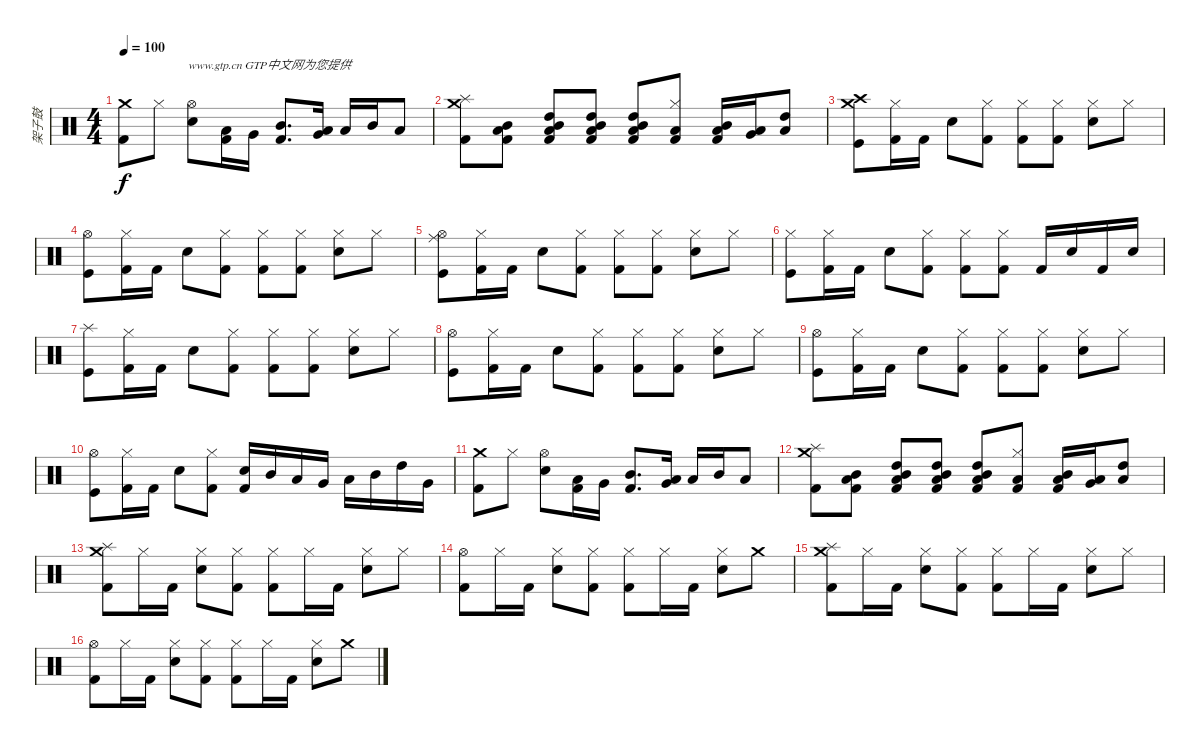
\track ("架子鼓" "架子鼓") {instrument percussion}
\staff {score}
\articulation defaults
\ts (4 4)
\tempo 100
\clef neutral
\ks c
("Crash medium (hit)" "Kick (hit) 2").8{txt "                     www.gtp.cn GTP中文网为您提供" dy f} "Hi-Hat (closed)".8 ("Hi-Hat (open)" "Electric Snare (hit)").8 ("Low Tom (hit)" "Kick (hit) 2").16 "Very Low Tom (hit)".16 ("Mid Tom (hit)" "Kick (hit) 2").8{d} ("Very Low Tom (hit)" "Low Tom (hit)").16 "Low Tom (hit)".16 "Mid Tom (hit)".16 "Low Floor Tom (hit)".8 |
("Splash (hit)" "Crash medium (hit)" "Kick (hit) 2").8 ("Mid Tom (hit)" "Low Tom (hit)" "Kick (hit) 2").8 ("Mid Tom (hit)" "High Tom (hit)" "Low Tom (hit)" "Kick (hit) 2").8 ("Mid Tom (hit)" "High Tom (hit)" "Low Tom (hit)" "Kick (hit) 2").8 ("Mid Tom (hit)" "High Tom (hit)" "Low Tom (hit)" "Kick (hit) 2").8 ("Hi-Hat (closed)" "Low Tom (hit)" "Kick (hit) 2").8 ("Mid Tom (hit)" "Low Tom (hit)" "Kick (hit) 2").16 ("Low Tom (hit)" "Very Low Tom (hit)").16 ("High Tom (hit)" "Low Floor Tom (hit)").8 |
("Crash medium (hit)" "Crash high (hit)" "Kick (hit)").8 ("Hi-Hat (closed)" "Kick (hit) 2").16 "Kick (hit) 2".16 "Electric Snare (hit)".8 ("Hi-Hat (closed)" "Kick (hit) 2").8 ("Hi-Hat (closed)" "Kick (hit) 2").8 ("Hi-Hat (closed)" "Kick (hit) 2").8 ("Hi-Hat (closed)" "Electric Snare (hit)").8 "Hi-Hat (closed)".8 |
("Hi-Hat (open)" "Kick (hit)").8 ("Hi-Hat (closed)" "Kick (hit) 2").16 "Kick (hit) 2".16 "Electric Snare (hit)".8 ("Hi-Hat (closed)" "Kick (hit) 2").8 ("Hi-Hat (closed)" "Kick (hit) 2").8 ("Hi-Hat (closed)" "Kick (hit) 2").8 ("Hi-Hat (closed)" "Electric Snare (hit)").8 "Hi-Hat (closed)".8 |
("Ride (middle)" "Hi-Hat (open)" "Kick (hit)").8 ("Hi-Hat (closed)" "Kick (hit) 2").16 "Kick (hit) 2".16 "Electric Snare (hit)".8 ("Hi-Hat (closed)" "Kick (hit) 2").8 ("Hi-Hat (closed)" "Kick (hit) 2").8 ("Hi-Hat (closed)" "Kick (hit) 2").8 ("Hi-Hat (closed)" "Electric Snare (hit)").8 "Hi-Hat (closed)".8 |
("Hi-Hat (closed)" "Kick (hit)").8 ("Hi-Hat (closed)" "Kick (hit) 2").16 "Kick (hit) 2".16 "Electric Snare (hit)".8 ("Hi-Hat (closed)" "Kick (hit) 2").8 ("Hi-Hat (closed)" "Kick (hit) 2").8 ("Hi-Hat (closed)" "Kick (hit) 2").8 "Kick (hit) 2".16 "Electric Snare (hit)".16 "Kick (hit) 2".16 "Electric Snare (hit)".16 |
("Splash (hit)" "Kick (hit)").8 ("Hi-Hat (closed)" "Kick (hit) 2").16 "Kick (hit) 2".16 "Electric Snare (hit)".8 ("Hi-Hat (closed)" "Kick (hit) 2").8 ("Hi-Hat (closed)" "Kick (hit) 2").8 ("Hi-Hat (closed)" "Kick (hit) 2").8 ("Hi-Hat (closed)" "Electric Snare (hit)").8 "Hi-Hat (closed)".8 |
("Hi-Hat (open)" "Kick (hit)").8 ("Hi-Hat (closed)" "Kick (hit) 2").16 "Kick (hit) 2".16 "Electric Snare (hit)".8 ("Hi-Hat (closed)" "Kick (hit) 2").8 ("Hi-Hat (closed)" "Kick (hit) 2").8 ("Hi-Hat (closed)" "Kick (hit) 2").8 ("Hi-Hat (closed)" "Electric Snare (hit)").8 "Hi-Hat (closed)".8 |
("Hi-Hat (open)" "Kick (hit)").8 ("Hi-Hat (closed)" "Kick (hit) 2").16 "Kick (hit) 2".16 "Electric Snare (hit)".8 ("Hi-Hat (closed)" "Kick (hit) 2").8 ("Hi-Hat (closed)" "Kick (hit) 2").8 ("Hi-Hat (closed)" "Kick (hit) 2").8 ("Hi-Hat (closed)" "Electric Snare (hit)").8 "Hi-Hat (closed)".8 |
("Hi-Hat (open)" "Kick (hit)").8 ("Hi-Hat (closed)" "Kick (hit) 2").16 "Kick (hit) 2".16 "Electric Snare (hit)".8 ("Hi-Hat (closed)" "Kick (hit) 2").8 ("Electric Snare (hit)" "Kick (hit) 2").16 "Mid Tom (hit)".16 "Low Tom (hit)".16 "Very Low Tom (hit)".16 "Low Tom (hit)".16 "Mid Tom (hit)".16 "High Tom (hit)".16 "Very Low Tom (hit)".16 |
("Crash medium (hit)" "Kick (hit) 2").8 "Hi-Hat (closed)".8 ("Hi-Hat (open)" "Electric Snare (hit)").8 ("Low Tom (hit)" "Kick (hit) 2").16 "Very Low Tom (hit)".16 ("Mid Tom (hit)" "Kick (hit) 2").8{d} ("Very Low Tom (hit)" "Low Tom (hit)").16 "Low Tom (hit)".16 "Mid Tom (hit)".16 "Low Floor Tom (hit)".8 |
("Splash (hit)" "Crash medium (hit)" "Kick (hit) 2").8 ("Mid Tom (hit)" "Low Tom (hit)" "Kick (hit) 2").8 ("Mid Tom (hit)" "High Tom (hit)" "Low Tom (hit)" "Kick (hit) 2").8 ("Mid Tom (hit)" "High Tom (hit)" "Low Tom (hit)" "Kick (hit) 2").8 ("Mid Tom (hit)" "High Tom (hit)" "Low Tom (hit)" "Kick (hit) 2").8 ("Hi-Hat (closed)" "Low Tom (hit)" "Kick (hit) 2").8 ("Mid Tom (hit)" "Low Tom (hit)" "Kick (hit) 2").16 ("Low Tom (hit)" "Very Low Tom (hit)").16 ("High Tom (hit)" "Low Floor Tom (hit)").8 |
("Splash (hit)" "Crash medium (hit)" "Kick (hit) 2").8 "Hi-Hat (closed)".16 "Kick (hit) 2".16 ("Hi-Hat (closed)" "Electric Snare (hit)").8 ("Hi-Hat (closed)" "Kick (hit) 2").8 ("Hi-Hat (closed)" "Kick (hit) 2").8 "Hi-Hat (closed)".16 "Kick (hit) 2".16 ("Hi-Hat (closed)" "Electric Snare (hit)").8 "Hi-Hat (closed)".8 |
("Hi-Hat (open)" "Kick (hit) 2").8 "Hi-Hat (closed)".16 "Kick (hit) 2".16 ("Hi-Hat (closed)" "Electric Snare (hit)").8 ("Hi-Hat (closed)" "Kick (hit) 2").8 ("Hi-Hat (closed)" "Kick (hit) 2").8 "Hi-Hat (closed)".16 "Kick (hit) 2".16 ("Hi-Hat (closed)" "Electric Snare (hit)").8 "Crash medium (hit)".8 |
("Splash (hit)" "Crash medium (hit)" "Kick (hit) 2").8 "Hi-Hat (closed)".16 "Kick (hit) 2".16 ("Hi-Hat (closed)" "Electric Snare (hit)").8 ("Hi-Hat (closed)" "Kick (hit) 2").8 ("Hi-Hat (closed)" "Kick (hit) 2").8 "Hi-Hat (closed)".16 "Kick (hit) 2".16 ("Hi-Hat (closed)" "Electric Snare (hit)").8 "Hi-Hat (closed)".8 |
("Hi-Hat (open)" "Kick (hit) 2").8 "Hi-Hat (closed)".16 "Kick (hit) 2".16 ("Hi-Hat (closed)" "Electric Snare (hit)").8 ("Hi-Hat (closed)" "Kick (hit) 2").8 ("Hi-Hat (closed)" "Kick (hit) 2").8 "Hi-Hat (closed)".16 "Kick (hit) 2".16 ("Hi-Hat (closed)" "Electric Snare (hit)").8 "Crash medium (hit)".8
